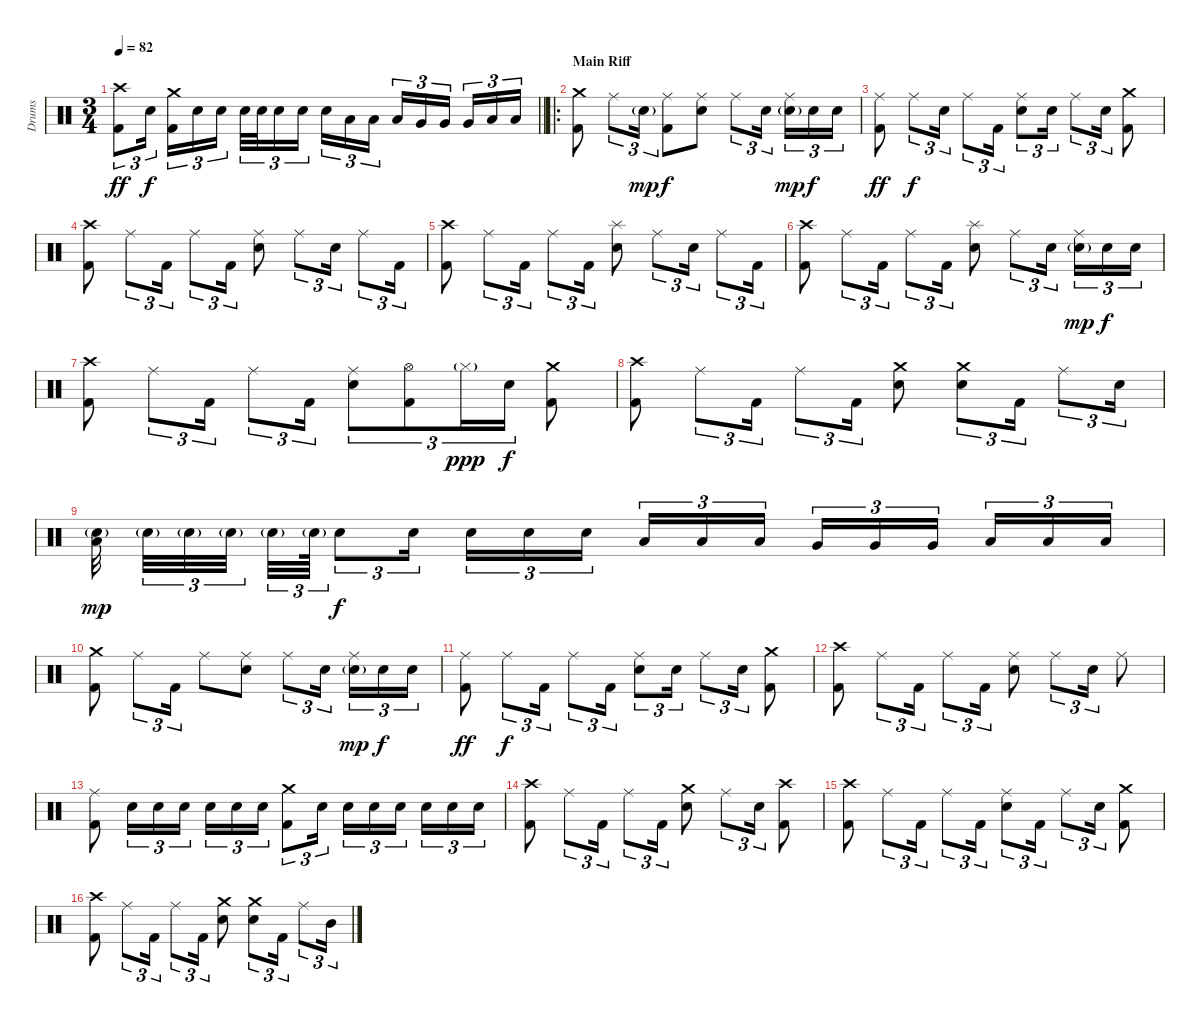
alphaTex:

\track ("Drums" "Drums") {instrument percussion}
\staff {score}
\articulation defaults
\ts (3 4)
\tempo 82
\clef neutral
\barLineRight lightlight
\ks c
("Crash high (hit)" "Kick (hit) 2").8{tu (3 2) dy ff} "Electric Snare (hit)".16{tu (3 2) dy f beam splitsecondary} ("Crash medium (hit)" "Kick (hit) 2").16{tu (3 2)} "Electric Snare (hit)".16{tu (3 2)} "Electric Snare (hit)".16{tu (3 2)} "Electric Snare (hit)".32{tu (3 2)} "Electric Snare (hit)".32{tu (3 2)} "Electric Snare (hit)".16{tu (3 2)} "Electric Snare (hit)".16{tu (3 2) beam splitsecondary} "Electric Snare (hit)".16{tu (3 2)} "Low Tom (hit)".16{tu (3 2)} "Low Tom (hit)".16{tu (3 2)} "Low Tom (hit)".16{tu (3 2)} "Very Low Tom (hit)".16{tu (3 2)} "Very Low Tom (hit)".16{tu (3 2) beam splitsecondary} "Very Low Tom (hit)".16{tu (3 2)} "Low Floor Tom (hit)".16{tu (3 2)} "Low Floor Tom (hit)".16{tu (3 2)} |
\ro
\section ("" "Main Riff")
("Crash medium (hit)" "Kick (hit) 2").8 "Ride (middle)".8{tu (3 2)} "Electric Snare (hit)"{g}.16{tu (3 2) dy mp} ("Ride (middle)" "Kick (hit) 2").8{dy f} ("Ride (middle)" "Electric Snare (hit)").8 "Ride (middle)".8{tu (3 2)} "Electric Snare (hit)".16{tu (3 2) beam splitsecondary} ("Ride (middle)" "Electric Snare (hit)"{g}).16{tu (3 2) dy mp} "Electric Snare (hit)".16{tu (3 2) dy f} "Electric Snare (hit)".16{tu (3 2)} |
("Ride (middle)" "Kick (hit) 2").8{dy ff} "Ride (middle)".8{tu (3 2) dy f} "Electric Snare (hit)".16{tu (3 2)} "Ride (middle)".8{tu (3 2)} "Kick (hit) 2".16{tu (3 2)} ("Ride (middle)" "Electric Snare (hit)").8{tu (3 2)} "Electric Snare (hit)".16{tu (3 2)} "Ride (middle)".8{tu (3 2)} "Electric Snare (hit)".16{tu (3 2)} ("Crash medium (hit)" "Kick (hit) 2").8 |
("Crash high (hit)" "Kick (hit) 2").8 "Ride (middle)".8{tu (3 2)} "Kick (hit) 2".16{tu (3 2)} "Ride (middle)".8{tu (3 2)} "Kick (hit) 2".16{tu (3 2)} ("Ride (middle)" "Electric Snare (hit)").8 "Ride (middle)".8{tu (3 2)} "Electric Snare (hit)".16{tu (3 2)} "Ride (middle)".8{tu (3 2)} "Kick (hit) 2".16{tu (3 2)} |
("Crash high (hit)" "Kick (hit) 2").8 "Ride (middle)".8{tu (3 2)} "Kick (hit) 2".16{tu (3 2)} "Ride (middle)".8{tu (3 2)} "Kick (hit) 2".16{tu (3 2)} ("Splash (hit)" "Electric Snare (hit)").8 "Ride (middle)".8{tu (3 2)} "Electric Snare (hit)".16{tu (3 2)} "Ride (middle)".8{tu (3 2)} "Kick (hit) 2".16{tu (3 2)} |
("Crash high (hit)" "Kick (hit) 2").8 "Ride (middle)".8{tu (3 2)} "Kick (hit) 2".16{tu (3 2)} "Ride (middle)".8{tu (3 2)} "Kick (hit) 2".16{tu (3 2)} ("Splash (hit)" "Electric Snare (hit)").8 "Ride (middle)".8{tu (3 2)} "Electric Snare (hit)".16{tu (3 2) beam splitsecondary} ("Ride (middle)" "Electric Snare (hit)"{g}).16{tu (3 2) dy mp} "Electric Snare (hit)".16{tu (3 2) dy f} "Electric Snare (hit)".16{tu (3 2)} |
("Crash high (hit)" "Kick (hit) 2").8 "Ride (middle)".8{tu (3 2)} "Kick (hit) 2".16{tu (3 2)} "Ride (middle)".8{tu (3 2)} "Kick (hit) 2".16{tu (3 2)} ("Ride (middle)" "Electric Snare (hit)").8{tu (3 2)} ("Hi-Hat (open)" "Kick (hit) 2").8{tu (3 2)} "Hi-Hat (closed)"{g}.16{tu (3 2) dy ppp} "Electric Snare (hit)".16{tu (3 2) dy f} ("Crash medium (hit)" "Kick (hit) 2").8 |
("Crash high (hit)" "Kick (hit) 2").8 "Ride (middle)".8{tu (3 2)} "Kick (hit) 2".16{tu (3 2)} "Ride (middle)".8{tu (3 2)} "Kick (hit) 2".16{tu (3 2)} ("Crash medium (hit)" "Electric Snare (hit)").8 ("Crash medium (hit)" "Electric Snare (hit)").8{tu (3 2)} "Kick (hit) 2".16{tu (3 2)} "Ride (middle)".8{tu (3 2)} "Electric Snare (hit)".16{tu (3 2)} |
("Low Floor Tom (hit)" "Electric Snare (hit)"{g}).32{dy mp beam splitsecondary} "Electric Snare (hit)"{g}.32{tu (3 2)} "Electric Snare (hit)"{g}.32{tu (3 2)} "Electric Snare (hit)"{g}.32{tu (3 2) beam splitsecondary} "Electric Snare (hit)"{g}.32{tu (3 2)} "Electric Snare (hit)"{g}.64{tu (3 2)} "Electric Snare (hit)".8{tu (3 2) dy f} "Electric Snare (hit)".16{tu (3 2)} "Electric Snare (hit)".16{tu (3 2)} "Electric Snare (hit)".16{tu (3 2)} "Electric Snare (hit)".16{tu (3 2) beam splitsecondary} "Low Tom (hit)".16{tu (3 2)} "Low Tom (hit)".16{tu (3 2)} "Low Tom (hit)".16{tu (3 2)} "Very Low Tom (hit)".16{tu (3 2)} "Very Low Tom (hit)".16{tu (3 2)} "Very Low Tom (hit)".16{tu (3 2) beam splitsecondary} "Low Floor Tom (hit)".16{tu (3 2)} "Low Floor Tom (hit)".16{tu (3 2)} "Low Floor Tom (hit)".16{tu (3 2)} |
("Crash medium (hit)" "Kick (hit) 2").8 "Ride (middle)".8{tu (3 2)} "Kick (hit) 2".16{tu (3 2)} "Ride (middle)".8 ("Ride (middle)" "Electric Snare (hit)").8 "Ride (middle)".8{tu (3 2)} "Electric Snare (hit)".16{tu (3 2) beam splitsecondary} ("Ride (middle)" "Electric Snare (hit)"{g}).16{tu (3 2) dy mp} "Electric Snare (hit)".16{tu (3 2) dy f} "Electric Snare (hit)".16{tu (3 2)} |
("Ride (middle)" "Kick (hit) 2").8{dy ff} "Ride (middle)".8{tu (3 2) dy f} "Kick (hit) 2".16{tu (3 2)} "Ride (middle)".8{tu (3 2)} "Kick (hit) 2".16{tu (3 2)} ("Ride (middle)" "Electric Snare (hit)").8{tu (3 2)} "Electric Snare (hit)".16{tu (3 2)} "Ride (middle)".8{tu (3 2)} "Electric Snare (hit)".16{tu (3 2)} ("Crash medium (hit)" "Kick (hit) 2").8 |
("Crash high (hit)" "Kick (hit) 2").8 "Ride (middle)".8{tu (3 2)} "Kick (hit) 2".16{tu (3 2)} "Ride (middle)".8{tu (3 2)} "Kick (hit) 2".16{tu (3 2)} ("Ride (middle)" "Electric Snare (hit)").8 "Ride (middle)".8{tu (3 2)} "Electric Snare (hit)".16{tu (3 2)} "Ride (middle)".8 |
("Ride (middle)" "Kick (hit) 2").8 "Electric Snare (hit)".16{tu (3 2)} "Electric Snare (hit)".16{tu (3 2)} "Electric Snare (hit)".16{tu (3 2)} "Electric Snare (hit)".16{tu (3 2)} "Electric Snare (hit)".16{tu (3 2)} "Electric Snare (hit)".16{tu (3 2)} ("Crash medium (hit)" "Kick (hit) 2").8{tu (3 2)} "Electric Snare (hit)".16{tu (3 2)} "Electric Snare (hit)".16{tu (3 2)} "Electric Snare (hit)".16{tu (3 2)} "Electric Snare (hit)".16{tu (3 2) beam splitsecondary} "Electric Snare (hit)".16{tu (3 2)} "Electric Snare (hit)".16{tu (3 2)} "Electric Snare (hit)".16{tu (3 2)} |
("Crash high (hit)" "Kick (hit) 2").8 "Ride (middle)".8{tu (3 2)} "Kick (hit) 2".16{tu (3 2)} "Ride (middle)".8{tu (3 2)} "Kick (hit) 2".16{tu (3 2)} ("Crash medium (hit)" "Electric Snare (hit)").8 "Ride (middle)".8{tu (3 2)} "Electric Snare (hit)".16{tu (3 2)} ("Crash high (hit)" "Kick (hit) 2").8 |
("Crash high (hit)" "Kick (hit) 2").8 "Ride (middle)".8{tu (3 2)} "Kick (hit) 2".16{tu (3 2)} "Ride (middle)".8{tu (3 2)} "Kick (hit) 2".16{tu (3 2)} ("Ride (middle)" "Electric Snare (hit)").8{tu (3 2)} "Kick (hit) 2".16{tu (3 2)} "Ride (middle)".8{tu (3 2)} "Electric Snare (hit)".16{tu (3 2)} ("Crash medium (hit)" "Kick (hit) 2").8 |
("Crash high (hit)" "Kick (hit) 2").8 "Ride (middle)".8{tu (3 2)} "Kick (hit) 2".16{tu (3 2)} "Ride (middle)".8{tu (3 2)} "Kick (hit) 2".16{tu (3 2)} ("Crash medium (hit)" "Electric Snare (hit)").8 ("Crash medium (hit)" "Electric Snare (hit)").8{tu (3 2)} "Kick (hit) 2".16{tu (3 2)} "Ride (middle)".8{tu (3 2)} "Mid Tom (hit)".16{tu (3 2)}
